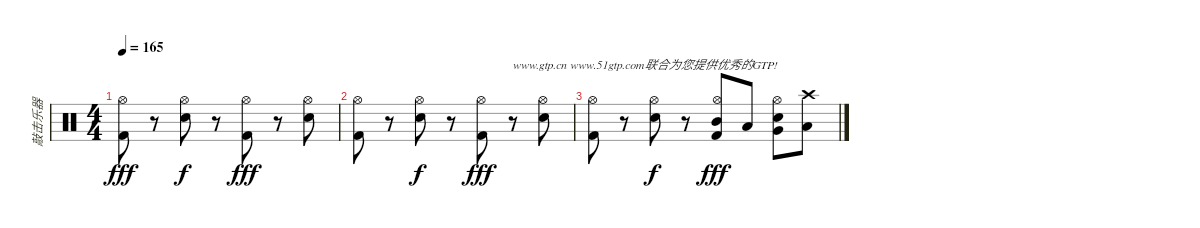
\track ("敲击乐器" "敲击乐器") {instrument percussion}
\staff {score}
\articulation defaults
\ts (4 4)
\tempo 165
\clef neutral
\ks c
("Kick (hit) 2" "Hi-Hat (open)").8{dy fff} r.8 ("Snare (hit) 2" "Hi-Hat (open)").8{dy f} r.8 ("Kick (hit) 2" "Hi-Hat (open)").8{dy fff} r.8 ("Snare (hit) 2" "Hi-Hat (open)").8 |
("Kick (hit) 2" "Hi-Hat (open)").8 r.8 ("Snare (hit) 2" "Hi-Hat (open)").8{dy f} r.8 ("Kick (hit) 2" "Hi-Hat (open)").8{dy fff} r.8{txt "www.gtp.cn www.51gtp.com联合为您提供优秀的GTP!"} ("Snare (hit) 2" "Hi-Hat (open)").8 |
("Kick (hit) 2" "Hi-Hat (open)").8 r.8 ("Snare (hit) 2" "Hi-Hat (open)").8{dy f} r.8 ("Kick (hit) 2" "Hi-Hat (open)" "Mid Tom (hit)").8{dy fff} "Low Tom (hit)".8 ("Snare (hit) 2" "Hi-Hat (open)" "Very Low Tom (hit)").8 ("Low Floor Tom (hit)" "Crash high (hit)").8
